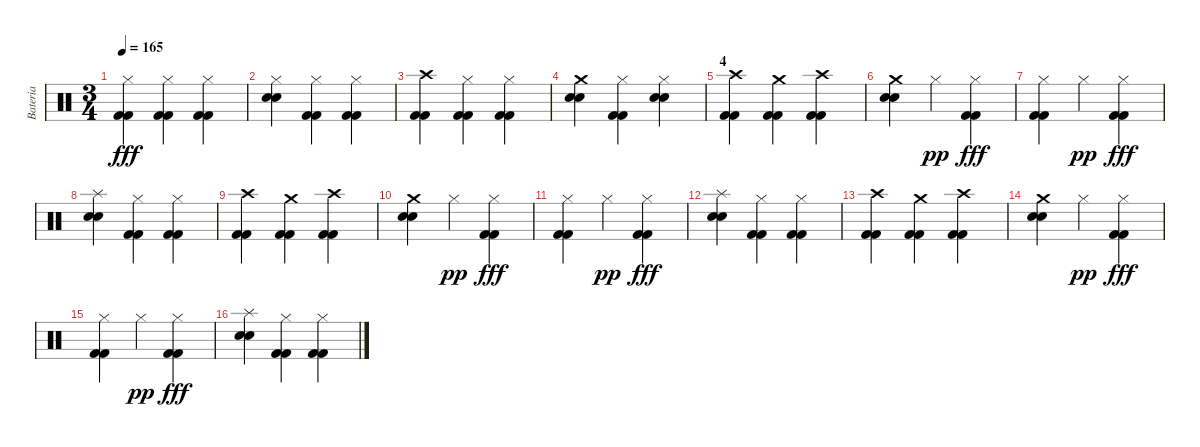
\track ("Bateria" "Bateria") {instrument percussion}
\staff {score}
\articulation defaults
\ts (3 4)
\tempo 165
\clef neutral
\ks c
("Hi-Hat (closed)" "Kick (hit) 2" "Kick (hit) 2").4{dy fff} ("Hi-Hat (closed)" "Kick (hit) 2" "Kick (hit) 2").4 ("Hi-Hat (closed)" "Kick (hit) 2" "Kick (hit) 2").4 |
("Hi-Hat (closed)" "Snare (hit) 2" "Electric Snare (hit)").4 ("Hi-Hat (closed)" "Kick (hit) 2" "Kick (hit) 2").4 ("Hi-Hat (closed)" "Kick (hit) 2" "Kick (hit) 2").4 |
("Crash high (hit)" "Kick (hit) 2" "Kick (hit) 2").4 ("Hi-Hat (closed)" "Kick (hit) 2" "Kick (hit) 2").4 ("Hi-Hat (closed)" "Kick (hit) 2" "Kick (hit) 2").4 |
("Crash medium (hit)" "Electric Snare (hit)" "Snare (hit) 2").4 ("Hi-Hat (closed)" "Kick (hit) 2" "Kick (hit) 2").4 ("Hi-Hat (closed)" "Electric Snare (hit)" "Snare (hit) 2").4 |
\section ("" "4")
("Crash high (hit)" "Kick (hit) 2" "Kick (hit) 2").4 ("Crash medium (hit)" "Kick (hit) 2" "Kick (hit) 2").4 ("Crash high (hit)" "Kick (hit) 2" "Kick (hit) 2").4 |
("Crash medium (hit)" "Snare (hit) 2" "Electric Snare (hit)").4 "Hi-Hat (closed)".4{dy pp} ("Hi-Hat (closed)" "Kick (hit) 2" "Kick (hit) 2").4{dy fff} |
("Hi-Hat (closed)" "Kick (hit) 2" "Kick (hit) 2").4 "Hi-Hat (closed)".4{dy pp} ("Hi-Hat (closed)" "Kick (hit) 2" "Kick (hit) 2").4{dy fff} |
("Splash (hit)" "Electric Snare (hit)" "Snare (hit) 2").4 ("Hi-Hat (closed)" "Kick (hit) 2" "Kick (hit) 2").4 ("Hi-Hat (closed)" "Kick (hit) 2" "Kick (hit) 2").4 |
("Crash high (hit)" "Kick (hit) 2" "Kick (hit) 2").4 ("Crash medium (hit)" "Kick (hit) 2" "Kick (hit) 2").4 ("Crash high (hit)" "Kick (hit) 2" "Kick (hit) 2").4 |
("Crash medium (hit)" "Snare (hit) 2" "Electric Snare (hit)").4 "Hi-Hat (closed)".4{dy pp} ("Hi-Hat (closed)" "Kick (hit) 2" "Kick (hit) 2").4{dy fff} |
("Hi-Hat (closed)" "Kick (hit) 2" "Kick (hit) 2").4 "Hi-Hat (closed)".4{dy pp} ("Hi-Hat (closed)" "Kick (hit) 2" "Kick (hit) 2").4{dy fff} |
("Splash (hit)" "Electric Snare (hit)" "Snare (hit) 2").4 ("Hi-Hat (closed)" "Kick (hit) 2" "Kick (hit) 2").4 ("Hi-Hat (closed)" "Kick (hit) 2" "Kick (hit) 2").4 |
("Crash high (hit)" "Kick (hit) 2" "Kick (hit) 2").4 ("Crash medium (hit)" "Kick (hit) 2" "Kick (hit) 2").4 ("Crash high (hit)" "Kick (hit) 2" "Kick (hit) 2").4 |
("Crash medium (hit)" "Snare (hit) 2" "Electric Snare (hit)").4 "Hi-Hat (closed)".4{dy pp} ("Hi-Hat (closed)" "Kick (hit) 2" "Kick (hit) 2").4{dy fff} |
("Hi-Hat (closed)" "Kick (hit) 2" "Kick (hit) 2").4 "Hi-Hat (closed)".4{dy pp} ("Hi-Hat (closed)" "Kick (hit) 2" "Kick (hit) 2").4{dy fff} |
("Splash (hit)" "Electric Snare (hit)" "Snare (hit) 2").4 ("Hi-Hat (closed)" "Kick (hit) 2" "Kick (hit) 2").4 ("Hi-Hat (closed)" "Kick (hit) 2" "Kick (hit) 2").4
